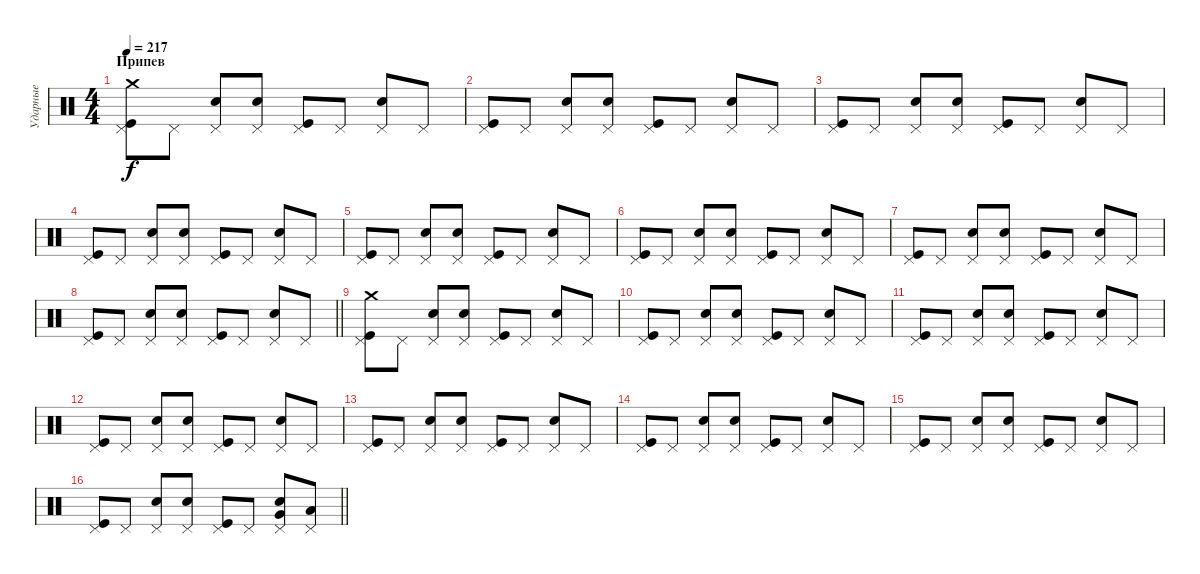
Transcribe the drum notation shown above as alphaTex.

\track ("Ударные" "Ударные") {instrument percussion}
\staff {score}
\articulation defaults
\ts (4 4)
\section ("" "Припев")
\tempo 217
\clef neutral
\ks c
("Pedal Hi-Hat (hit)" "Kick (hit)" "Crash medium (hit)").8{dy f} "Pedal Hi-Hat (hit)".8 ("Pedal Hi-Hat (hit)" "Snare (hit) 2").8 ("Pedal Hi-Hat (hit)" "Snare (hit) 2").8 ("Pedal Hi-Hat (hit)" "Kick (hit)").8 "Pedal Hi-Hat (hit)".8 ("Pedal Hi-Hat (hit)" "Snare (hit) 2").8 "Pedal Hi-Hat (hit)".8 |
("Pedal Hi-Hat (hit)" "Kick (hit)").8 "Pedal Hi-Hat (hit)".8 ("Pedal Hi-Hat (hit)" "Snare (hit) 2").8 ("Pedal Hi-Hat (hit)" "Snare (hit) 2").8 ("Pedal Hi-Hat (hit)" "Kick (hit)").8 "Pedal Hi-Hat (hit)".8 ("Pedal Hi-Hat (hit)" "Snare (hit) 2").8 "Pedal Hi-Hat (hit)".8 |
("Pedal Hi-Hat (hit)" "Kick (hit)").8 "Pedal Hi-Hat (hit)".8 ("Pedal Hi-Hat (hit)" "Snare (hit) 2").8 ("Pedal Hi-Hat (hit)" "Snare (hit) 2").8 ("Pedal Hi-Hat (hit)" "Kick (hit)").8 "Pedal Hi-Hat (hit)".8 ("Pedal Hi-Hat (hit)" "Snare (hit) 2").8 "Pedal Hi-Hat (hit)".8 |
("Pedal Hi-Hat (hit)" "Kick (hit)").8 "Pedal Hi-Hat (hit)".8 ("Pedal Hi-Hat (hit)" "Snare (hit) 2").8 ("Pedal Hi-Hat (hit)" "Snare (hit) 2").8 ("Pedal Hi-Hat (hit)" "Kick (hit)").8 "Pedal Hi-Hat (hit)".8 ("Pedal Hi-Hat (hit)" "Snare (hit) 2").8 "Pedal Hi-Hat (hit)".8 |
("Pedal Hi-Hat (hit)" "Kick (hit)").8 "Pedal Hi-Hat (hit)".8 ("Pedal Hi-Hat (hit)" "Snare (hit) 2").8 ("Pedal Hi-Hat (hit)" "Snare (hit) 2").8 ("Pedal Hi-Hat (hit)" "Kick (hit)").8 "Pedal Hi-Hat (hit)".8 ("Pedal Hi-Hat (hit)" "Snare (hit) 2").8 "Pedal Hi-Hat (hit)".8 |
("Pedal Hi-Hat (hit)" "Kick (hit)").8 "Pedal Hi-Hat (hit)".8 ("Pedal Hi-Hat (hit)" "Snare (hit) 2").8 ("Pedal Hi-Hat (hit)" "Snare (hit) 2").8 ("Pedal Hi-Hat (hit)" "Kick (hit)").8 "Pedal Hi-Hat (hit)".8 ("Pedal Hi-Hat (hit)" "Snare (hit) 2").8 "Pedal Hi-Hat (hit)".8 |
("Pedal Hi-Hat (hit)" "Kick (hit)").8 "Pedal Hi-Hat (hit)".8 ("Pedal Hi-Hat (hit)" "Snare (hit) 2").8 ("Pedal Hi-Hat (hit)" "Snare (hit) 2").8 ("Pedal Hi-Hat (hit)" "Kick (hit)").8 "Pedal Hi-Hat (hit)".8 ("Pedal Hi-Hat (hit)" "Snare (hit) 2").8 "Pedal Hi-Hat (hit)".8 |
\barLineRight lightlight
("Pedal Hi-Hat (hit)" "Kick (hit)").8 "Pedal Hi-Hat (hit)".8 ("Pedal Hi-Hat (hit)" "Snare (hit) 2").8 ("Pedal Hi-Hat (hit)" "Snare (hit) 2").8 ("Pedal Hi-Hat (hit)" "Kick (hit)").8 "Pedal Hi-Hat (hit)".8 ("Pedal Hi-Hat (hit)" "Snare (hit) 2").8 "Pedal Hi-Hat (hit)".8 |
("Pedal Hi-Hat (hit)" "Kick (hit)" "Crash medium (hit)").8 "Pedal Hi-Hat (hit)".8 ("Pedal Hi-Hat (hit)" "Snare (hit) 2").8 ("Pedal Hi-Hat (hit)" "Snare (hit) 2").8 ("Pedal Hi-Hat (hit)" "Kick (hit)").8 "Pedal Hi-Hat (hit)".8 ("Pedal Hi-Hat (hit)" "Snare (hit) 2").8 "Pedal Hi-Hat (hit)".8 |
("Pedal Hi-Hat (hit)" "Kick (hit)").8 "Pedal Hi-Hat (hit)".8 ("Pedal Hi-Hat (hit)" "Snare (hit) 2").8 ("Pedal Hi-Hat (hit)" "Snare (hit) 2").8 ("Pedal Hi-Hat (hit)" "Kick (hit)").8 "Pedal Hi-Hat (hit)".8 ("Pedal Hi-Hat (hit)" "Snare (hit) 2").8 "Pedal Hi-Hat (hit)".8 |
("Pedal Hi-Hat (hit)" "Kick (hit)").8 "Pedal Hi-Hat (hit)".8 ("Pedal Hi-Hat (hit)" "Snare (hit) 2").8 ("Pedal Hi-Hat (hit)" "Snare (hit) 2").8 ("Pedal Hi-Hat (hit)" "Kick (hit)").8 "Pedal Hi-Hat (hit)".8 ("Pedal Hi-Hat (hit)" "Snare (hit) 2").8 "Pedal Hi-Hat (hit)".8 |
("Pedal Hi-Hat (hit)" "Kick (hit)").8 "Pedal Hi-Hat (hit)".8 ("Pedal Hi-Hat (hit)" "Snare (hit) 2").8 ("Pedal Hi-Hat (hit)" "Snare (hit) 2").8 ("Pedal Hi-Hat (hit)" "Kick (hit)").8 "Pedal Hi-Hat (hit)".8 ("Pedal Hi-Hat (hit)" "Snare (hit) 2").8 "Pedal Hi-Hat (hit)".8 |
("Pedal Hi-Hat (hit)" "Kick (hit)").8 "Pedal Hi-Hat (hit)".8 ("Pedal Hi-Hat (hit)" "Snare (hit) 2").8 ("Pedal Hi-Hat (hit)" "Snare (hit) 2").8 ("Pedal Hi-Hat (hit)" "Kick (hit)").8 "Pedal Hi-Hat (hit)".8 ("Pedal Hi-Hat (hit)" "Snare (hit) 2").8 "Pedal Hi-Hat (hit)".8 |
("Pedal Hi-Hat (hit)" "Kick (hit)").8 "Pedal Hi-Hat (hit)".8 ("Pedal Hi-Hat (hit)" "Snare (hit) 2").8 ("Pedal Hi-Hat (hit)" "Snare (hit) 2").8 ("Pedal Hi-Hat (hit)" "Kick (hit)").8 "Pedal Hi-Hat (hit)".8 ("Pedal Hi-Hat (hit)" "Snare (hit) 2").8 "Pedal Hi-Hat (hit)".8 |
("Pedal Hi-Hat (hit)" "Kick (hit)").8 "Pedal Hi-Hat (hit)".8 ("Pedal Hi-Hat (hit)" "Snare (hit) 2").8 ("Pedal Hi-Hat (hit)" "Snare (hit) 2").8 ("Pedal Hi-Hat (hit)" "Kick (hit)").8 "Pedal Hi-Hat (hit)".8 ("Pedal Hi-Hat (hit)" "Snare (hit) 2").8 "Pedal Hi-Hat (hit)".8 |
\barLineRight lightlight
("Pedal Hi-Hat (hit)" "Kick (hit)").8 "Pedal Hi-Hat (hit)".8 ("Pedal Hi-Hat (hit)" "Snare (hit) 2").8 ("Pedal Hi-Hat (hit)" "Snare (hit) 2").8 ("Pedal Hi-Hat (hit)" "Kick (hit)").8 "Pedal Hi-Hat (hit)".8 ("Pedal Hi-Hat (hit)" "Snare (hit) 2" "Very Low Tom (hit)").8 ("Pedal Hi-Hat (hit)" "Low Tom (hit)").8
